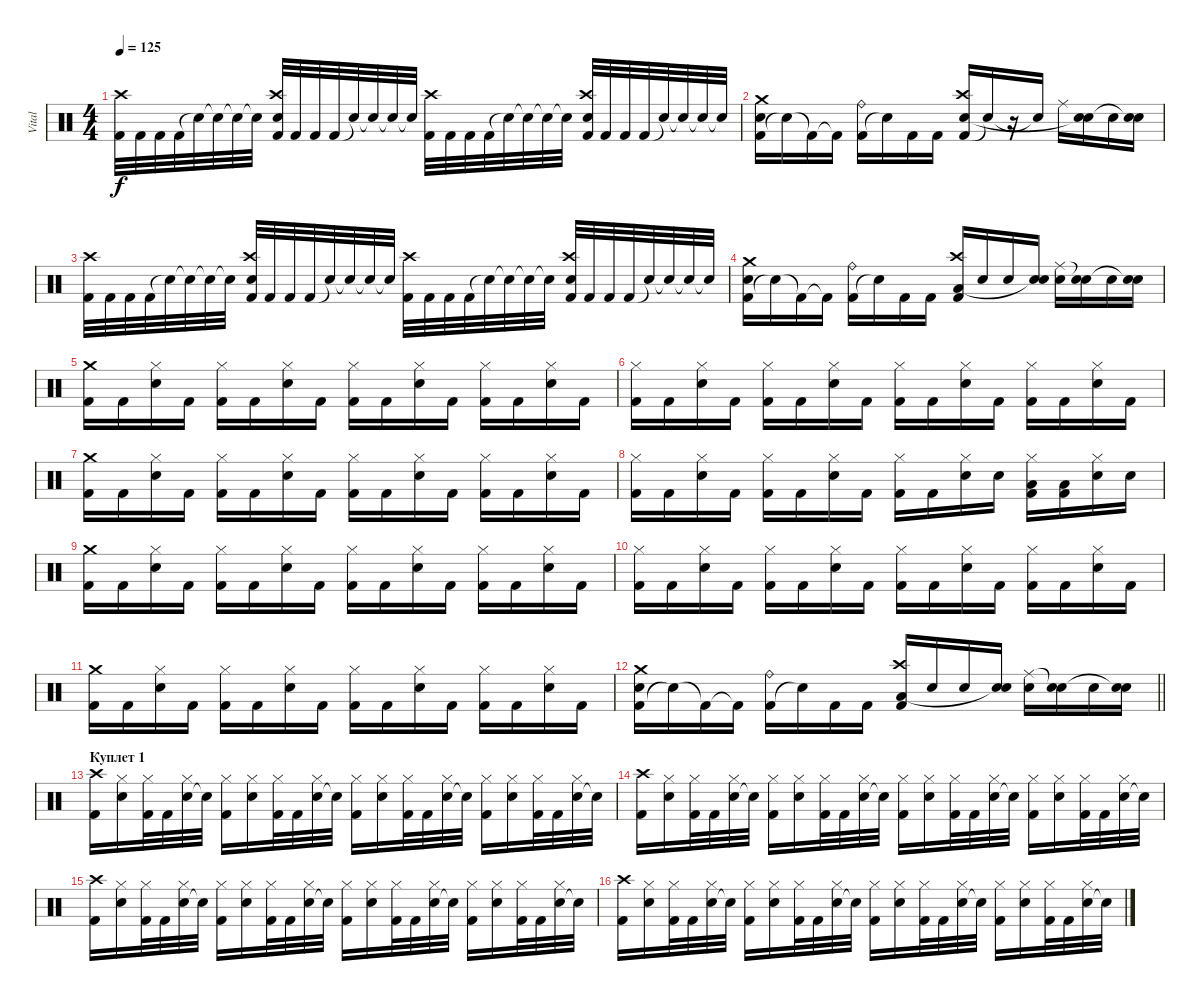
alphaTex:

\track ("Vital" "Vital") {instrument percussion}
\staff {score}
\articulation defaults
\ts (4 4)
\tempo 125
\clef neutral
\ks c
("Kick (hit) 2" "Crash high (hit)").32{dy f} "Kick (hit) 2".32 "Kick (hit) 2".32 "Kick (hit) 2".32 "Snare (hit)"{t}.32 "Snare (hit)"{t}.32 "Snare (hit)"{t}.32 "Snare (hit)"{t}.32 ("Kick (hit) 2" "Snare (hit) 2" "Crash high (hit)").32 "Kick (hit) 2".32 "Kick (hit) 2".32 "Kick (hit) 2".32 "Snare (hit)"{t}.32 "Snare (hit)"{t}.32 "Snare (hit)"{t}.32 "Snare (hit)"{t}.32 ("Kick (hit) 2" "Crash high (hit)").32 "Kick (hit) 2".32 "Kick (hit) 2".32 "Kick (hit) 2".32 "Snare (hit)"{t}.32 "Snare (hit)"{t}.32 "Snare (hit)"{t}.32 "Snare (hit)"{t}.32 ("Kick (hit) 2" "Snare (hit) 2" "Crash high (hit)").32 "Kick (hit) 2".32 "Kick (hit) 2".32 "Kick (hit) 2".32 "Snare (hit)"{t}.32 "Snare (hit)"{t}.32 "Snare (hit)"{t}.32 "Snare (hit)"{t}.32 |
("Kick (hit) 2" "Snare (hit) 2" "Crash medium (hit)").16 "Snare (hit)"{t}.16 "Kick (hit) 2"{t}.16 "Kick (hit) 2"{t}.16 ("Kick (hit) 2" "Ride (bell)").16 "Snare (hit)"{t}.16 "Kick (hit) 2".16 "Kick (hit) 2".16 ("Kick (hit) 2" "Snare (hit) 2" "Crash high (hit)").16 "Snare (hit)"{t}.16 r.16 "Snare (hit)"{t}.16 "Ride (middle)".16 ("Snare (hit) 2" "Snare (hit)"{t}).16 "Snare (hit) 2".16 ("Snare (hit) 2" "Snare (hit)"{t}).16 |
("Kick (hit) 2" "Crash high (hit)").32 "Kick (hit) 2".32 "Kick (hit) 2".32 "Kick (hit) 2".32 "Snare (hit)"{t}.32 "Snare (hit)"{t}.32 "Snare (hit)"{t}.32 "Snare (hit)"{t}.32 ("Kick (hit) 2" "Snare (hit) 2" "Crash high (hit)").32 "Kick (hit) 2".32 "Kick (hit) 2".32 "Kick (hit) 2".32 "Snare (hit)"{t}.32 "Snare (hit)"{t}.32 "Snare (hit)"{t}.32 "Snare (hit)"{t}.32 ("Kick (hit) 2" "Crash high (hit)").32 "Kick (hit) 2".32 "Kick (hit) 2".32 "Kick (hit) 2".32 "Snare (hit)"{t}.32 "Snare (hit)"{t}.32 "Snare (hit)"{t}.32 "Snare (hit)"{t}.32 ("Kick (hit) 2" "Snare (hit) 2" "Crash high (hit)").32 "Kick (hit) 2".32 "Kick (hit) 2".32 "Kick (hit) 2".32 "Snare (hit)"{t}.32 "Snare (hit)"{t}.32 "Snare (hit)"{t}.32 "Snare (hit)"{t}.32 |
("Kick (hit) 2" "Snare (hit) 2" "Crash medium (hit)").16 "Snare (hit)"{t}.16 "Kick (hit) 2"{t}.16 "Kick (hit) 2"{t}.16 ("Kick (hit) 2" "Ride (bell)").16 "Snare (hit)"{t}.16 "Kick (hit) 2".16 "Kick (hit) 2".16 ("Kick (hit) 2" "Low Floor Tom (hit)" "Crash high (hit)").16 "Snare (hit) 2".16 "Snare (hit) 2".16 ("Snare (hit) 2" "Snare (hit)"{t}).16 ("Snare (hit) 2" "Ride (middle)").16 ("Snare (hit) 2" "Snare (hit)"{t}).16 "Snare (hit) 2".16 ("Snare (hit) 2" "Snare (hit)"{t}).16 |
("Kick (hit) 2" "Crash medium (hit)").16 "Kick (hit) 2".16 ("Snare (hit) 2" "Hi-Hat (closed)").16 "Kick (hit) 2".16 ("Kick (hit) 2" "Hi-Hat (closed)").16 "Kick (hit) 2".16 ("Snare (hit) 2" "Hi-Hat (closed)").16 "Kick (hit) 2".16 ("Kick (hit) 2" "Hi-Hat (closed)").16 "Kick (hit) 2".16 ("Snare (hit) 2" "Hi-Hat (closed)").16 "Kick (hit) 2".16 ("Kick (hit) 2" "Hi-Hat (closed)").16 "Kick (hit) 2".16 ("Snare (hit) 2" "Hi-Hat (closed)").16 "Kick (hit) 2".16 |
("Kick (hit) 2" "Hi-Hat (closed)").16 "Kick (hit) 2".16 ("Snare (hit) 2" "Hi-Hat (closed)").16 "Kick (hit) 2".16 ("Kick (hit) 2" "Hi-Hat (closed)").16 "Kick (hit) 2".16 ("Snare (hit) 2" "Hi-Hat (closed)").16 "Kick (hit) 2".16 ("Kick (hit) 2" "Hi-Hat (closed)").16 "Kick (hit) 2".16 ("Snare (hit) 2" "Hi-Hat (closed)").16 "Kick (hit) 2".16 ("Kick (hit) 2" "Hi-Hat (closed)").16 "Kick (hit) 2".16 ("Snare (hit) 2" "Hi-Hat (closed)").16 "Kick (hit) 2".16 |
("Kick (hit) 2" "Crash medium (hit)").16 "Kick (hit) 2".16 ("Snare (hit) 2" "Hi-Hat (closed)").16 "Kick (hit) 2".16 ("Kick (hit) 2" "Hi-Hat (closed)").16 "Kick (hit) 2".16 ("Snare (hit) 2" "Hi-Hat (closed)").16 "Kick (hit) 2".16 ("Kick (hit) 2" "Hi-Hat (closed)").16 "Kick (hit) 2".16 ("Snare (hit) 2" "Hi-Hat (closed)").16 "Kick (hit) 2".16 ("Kick (hit) 2" "Hi-Hat (closed)").16 "Kick (hit) 2".16 ("Snare (hit) 2" "Hi-Hat (closed)").16 "Kick (hit) 2".16 |
("Kick (hit) 2" "Hi-Hat (closed)").16 "Kick (hit) 2".16 ("Snare (hit) 2" "Hi-Hat (closed)").16 "Kick (hit) 2".16 ("Kick (hit) 2" "Hi-Hat (closed)").16 "Kick (hit) 2".16 ("Snare (hit) 2" "Hi-Hat (closed)").16 "Kick (hit) 2".16 ("Kick (hit) 2" "Hi-Hat (closed)").16 "Kick (hit) 2".16 ("Snare (hit) 2" "Hi-Hat (closed)").16 "Snare (hit) 2".16 ("Low Floor Tom (hit)" "Kick (hit) 2" "Hi-Hat (closed)").16 ("Low Floor Tom (hit)" "Kick (hit) 2").16 ("Snare (hit) 2" "Hi-Hat (closed)").16 "Snare (hit) 2".16 |
("Kick (hit) 2" "Crash medium (hit)").16 "Kick (hit) 2".16 ("Snare (hit) 2" "Hi-Hat (closed)").16 "Kick (hit) 2".16 ("Kick (hit) 2" "Hi-Hat (closed)").16 "Kick (hit) 2".16 ("Snare (hit) 2" "Hi-Hat (closed)").16 "Kick (hit) 2".16 ("Kick (hit) 2" "Hi-Hat (closed)").16 "Kick (hit) 2".16 ("Snare (hit) 2" "Hi-Hat (closed)").16 "Kick (hit) 2".16 ("Kick (hit) 2" "Hi-Hat (closed)").16 "Kick (hit) 2".16 ("Snare (hit) 2" "Hi-Hat (closed)").16 "Kick (hit) 2".16 |
("Kick (hit) 2" "Hi-Hat (closed)").16 "Kick (hit) 2".16 ("Snare (hit) 2" "Hi-Hat (closed)").16 "Kick (hit) 2".16 ("Kick (hit) 2" "Hi-Hat (closed)").16 "Kick (hit) 2".16 ("Snare (hit) 2" "Hi-Hat (closed)").16 "Kick (hit) 2".16 ("Kick (hit) 2" "Hi-Hat (closed)").16 "Kick (hit) 2".16 ("Snare (hit) 2" "Hi-Hat (closed)").16 "Kick (hit) 2".16 ("Kick (hit) 2" "Hi-Hat (closed)").16 "Kick (hit) 2".16 ("Snare (hit) 2" "Hi-Hat (closed)").16 "Kick (hit) 2".16 |
("Kick (hit) 2" "Crash medium (hit)").16 "Kick (hit) 2".16 ("Snare (hit) 2" "Hi-Hat (closed)").16 "Kick (hit) 2".16 ("Kick (hit) 2" "Hi-Hat (closed)").16 "Kick (hit) 2".16 ("Snare (hit) 2" "Hi-Hat (closed)").16 "Kick (hit) 2".16 ("Kick (hit) 2" "Hi-Hat (closed)").16 "Kick (hit) 2".16 ("Snare (hit) 2" "Hi-Hat (closed)").16 "Kick (hit) 2".16 ("Kick (hit) 2" "Hi-Hat (closed)").16 "Kick (hit) 2".16 ("Snare (hit) 2" "Hi-Hat (closed)").16 "Kick (hit) 2".16 |
\barLineRight lightlight
("Kick (hit) 2" "Snare (hit) 2" "Crash medium (hit)").16 "Snare (hit)"{t}.16 "Kick (hit) 2"{t}.16 "Kick (hit) 2"{t}.16 ("Kick (hit) 2" "Ride (bell)").16 "Snare (hit)"{t}.16 "Kick (hit) 2".16 "Kick (hit) 2".16 ("Kick (hit) 2" "Low Floor Tom (hit)" "Crash high (hit)").16 "Snare (hit) 2".16 "Snare (hit) 2".16 ("Snare (hit) 2" "Snare (hit)"{t}).16 ("Snare (hit) 2" "Ride (middle)").16 ("Snare (hit) 2" "Snare (hit)"{t}).16 "Snare (hit) 2".16 ("Snare (hit) 2" "Snare (hit)"{t}).16 |
\section ("" "Куплет 1")
("Kick (hit) 2" "Crash high (hit)").16 ("Snare (hit) 2" "Hi-Hat (closed)").16 ("Kick (hit) 2" "Hi-Hat (closed)").32 "Kick (hit) 2".32 ("Snare (hit) 2" "Hi-Hat (closed)").32 "Snare (hit) 2"{t}.32 ("Kick (hit) 2" "Hi-Hat (closed)").16 ("Snare (hit) 2" "Hi-Hat (closed)").16 ("Kick (hit) 2" "Hi-Hat (closed)").32 "Kick (hit) 2".32 ("Snare (hit) 2" "Hi-Hat (closed)").32 "Snare (hit)"{t}.32 ("Kick (hit) 2" "Hi-Hat (closed)").16 ("Snare (hit) 2" "Hi-Hat (closed)").16 ("Kick (hit) 2" "Hi-Hat (closed)").32 "Kick (hit) 2".32 ("Snare (hit) 2" "Hi-Hat (closed)").32 "Snare (hit)"{t}.32 ("Kick (hit) 2" "Hi-Hat (closed)").16 ("Snare (hit) 2" "Hi-Hat (closed)").16 ("Kick (hit) 2" "Hi-Hat (closed)").32 "Kick (hit) 2".32 ("Snare (hit) 2" "Hi-Hat (closed)").32 "Snare (hit)"{t}.32 |
("Kick (hit) 2" "Crash high (hit)").16 ("Snare (hit) 2" "Hi-Hat (closed)").16 ("Kick (hit) 2" "Hi-Hat (closed)").32 "Kick (hit) 2".32 ("Snare (hit) 2" "Hi-Hat (closed)").32 "Snare (hit) 2"{t}.32 ("Kick (hit) 2" "Hi-Hat (closed)").16 ("Snare (hit) 2" "Hi-Hat (closed)").16 ("Kick (hit) 2" "Hi-Hat (closed)").32 "Kick (hit) 2".32 ("Snare (hit) 2" "Hi-Hat (closed)").32 "Snare (hit)"{t}.32 ("Kick (hit) 2" "Hi-Hat (closed)").16 ("Snare (hit) 2" "Hi-Hat (closed)").16 ("Kick (hit) 2" "Hi-Hat (closed)").32 "Kick (hit) 2".32 ("Snare (hit) 2" "Hi-Hat (closed)").32 "Snare (hit)"{t}.32 ("Kick (hit) 2" "Hi-Hat (closed)").16 ("Snare (hit) 2" "Hi-Hat (closed)").16 ("Kick (hit) 2" "Hi-Hat (closed)").32 "Kick (hit) 2".32 ("Snare (hit) 2" "Hi-Hat (closed)").32 "Snare (hit)"{t}.32 |
("Kick (hit) 2" "Crash high (hit)").16 ("Snare (hit) 2" "Hi-Hat (closed)").16 ("Kick (hit) 2" "Hi-Hat (closed)").32 "Kick (hit) 2".32 ("Snare (hit) 2" "Hi-Hat (closed)").32 "Snare (hit) 2"{t}.32 ("Kick (hit) 2" "Hi-Hat (closed)").16 ("Snare (hit) 2" "Hi-Hat (closed)").16 ("Kick (hit) 2" "Hi-Hat (closed)").32 "Kick (hit) 2".32 ("Snare (hit) 2" "Hi-Hat (closed)").32 "Snare (hit)"{t}.32 ("Kick (hit) 2" "Hi-Hat (closed)").16 ("Snare (hit) 2" "Hi-Hat (closed)").16 ("Kick (hit) 2" "Hi-Hat (closed)").32 "Kick (hit) 2".32 ("Snare (hit) 2" "Hi-Hat (closed)").32 "Snare (hit)"{t}.32 ("Kick (hit) 2" "Hi-Hat (closed)").16 ("Snare (hit) 2" "Hi-Hat (closed)").16 ("Kick (hit) 2" "Hi-Hat (closed)").32 "Kick (hit) 2".32 ("Snare (hit) 2" "Hi-Hat (closed)").32 "Snare (hit)"{t}.32 |
("Kick (hit) 2" "Crash high (hit)").16 ("Snare (hit) 2" "Hi-Hat (closed)").16 ("Kick (hit) 2" "Hi-Hat (closed)").32 "Kick (hit) 2".32 ("Snare (hit) 2" "Hi-Hat (closed)").32 "Snare (hit) 2"{t}.32 ("Kick (hit) 2" "Hi-Hat (closed)").16 ("Snare (hit) 2" "Hi-Hat (closed)").16 ("Kick (hit) 2" "Hi-Hat (closed)").32 "Kick (hit) 2".32 ("Snare (hit) 2" "Hi-Hat (closed)").32 "Snare (hit)"{t}.32 ("Kick (hit) 2" "Hi-Hat (closed)").16 ("Snare (hit) 2" "Hi-Hat (closed)").16 ("Kick (hit) 2" "Hi-Hat (closed)").32 "Kick (hit) 2".32 ("Snare (hit) 2" "Hi-Hat (closed)").32 "Snare (hit)"{t}.32 ("Kick (hit) 2" "Hi-Hat (closed)").16 ("Snare (hit) 2" "Hi-Hat (closed)").16 ("Kick (hit) 2" "Hi-Hat (closed)").32 "Kick (hit) 2".32 ("Snare (hit) 2" "Hi-Hat (closed)").32 "Snare (hit)"{t}.32
